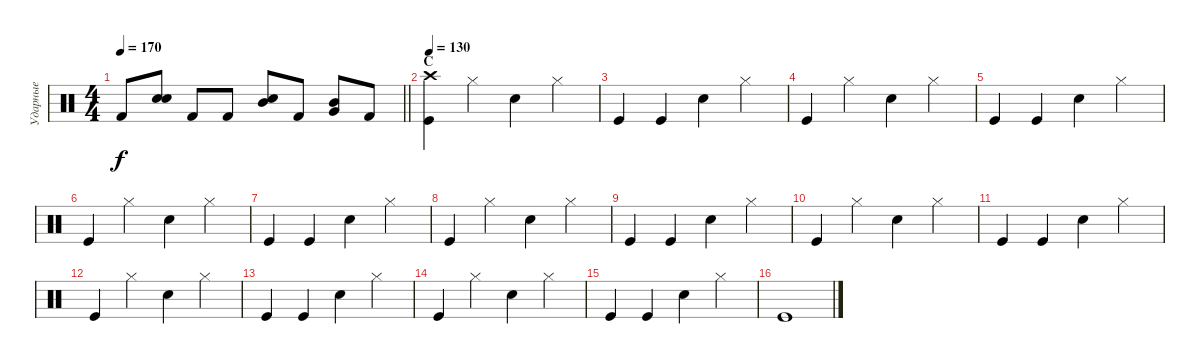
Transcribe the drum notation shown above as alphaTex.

\track ("Ударные" "Ударные") {instrument percussion}
\staff {score}
\articulation defaults
\ts (4 4)
\tempo 170
\clef neutral
\barLineRight lightlight
\ks c "Kick (hit) 2".8{dy f}
("Electric Snare (hit)" "Electric Snare (hit)").8 "Kick (hit) 2".8 "Kick (hit) 2".8 ("Mid Tom (hit)" "Electric Snare (hit)").8 "Kick (hit) 2".8 ("Mid Tom (hit)" "Very Low Tom (hit)").8 "Kick (hit) 2".8 |
\section ("" "C")
\tempo 130
("Crash high (hit)" "Kick (hit)").4 "Hi-Hat (closed)".4 "Snare (hit) 2".4 "Hi-Hat (closed)".4 |
"Kick (hit)".4 "Kick (hit)".4 "Snare (hit) 2".4 "Hi-Hat (closed)".4 |
"Kick (hit)".4 "Hi-Hat (closed)".4 "Snare (hit) 2".4 "Hi-Hat (closed)".4 |
"Kick (hit)".4 "Kick (hit)".4 "Snare (hit) 2".4 "Hi-Hat (closed)".4 |
"Kick (hit)".4 "Hi-Hat (closed)".4 "Snare (hit) 2".4 "Hi-Hat (closed)".4 |
"Kick (hit)".4 "Kick (hit)".4 "Snare (hit) 2".4 "Hi-Hat (closed)".4 |
"Kick (hit)".4 "Hi-Hat (closed)".4 "Snare (hit) 2".4 "Hi-Hat (closed)".4 |
"Kick (hit)".4 "Kick (hit)".4 "Snare (hit) 2".4 "Hi-Hat (closed)".4 |
"Kick (hit)".4 "Hi-Hat (closed)".4 "Snare (hit) 2".4 "Hi-Hat (closed)".4 |
"Kick (hit)".4 "Kick (hit)".4 "Snare (hit) 2".4 "Hi-Hat (closed)".4 |
"Kick (hit)".4 "Hi-Hat (closed)".4 "Snare (hit) 2".4 "Hi-Hat (closed)".4 |
"Kick (hit)".4 "Kick (hit)".4 "Snare (hit) 2".4 "Hi-Hat (closed)".4 |
"Kick (hit)".4 "Hi-Hat (closed)".4 "Snare (hit) 2".4 "Hi-Hat (closed)".4 |
"Kick (hit)".4 "Kick (hit)".4 "Snare (hit) 2".4 "Hi-Hat (closed)".4 |
"Kick (hit)".1
